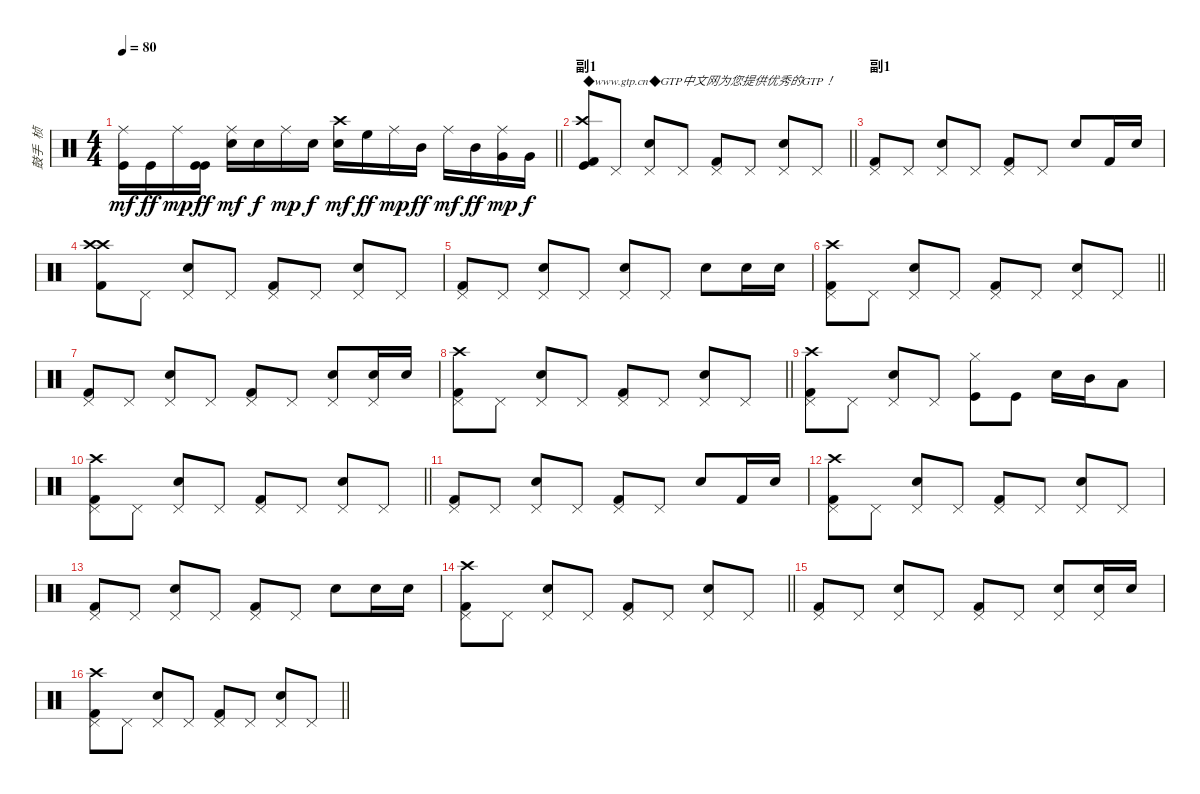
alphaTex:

\track ("鼓手  桢" "鼓手  桢") {instrument percussion}
\staff {score}
\articulation defaults
\ts (4 4)
\tempo 80
\clef neutral
\barLineRight lightlight
\ks c
("Kick (hit)" "Ride (middle)").16{dy mf} "Kick (hit)".16{dy ff} "Ride (middle)".16{dy mp} ("Kick (hit)" "Kick (hit)").16{dy ff} ("Snare (hit) 2" "Ride (middle)").16{dy mf} "Snare (hit) 2".16{dy f} "Ride (middle)".16{dy mp} "Snare (hit) 2".16{dy f} ("Snare (hit) 2" "Crash high (hit)").16{dy mf} "High Floor Tom (hit)".16{dy ff} "Ride (middle)".16{dy mp} "Mid Tom (hit)".16{dy ff} "Ride (middle)".16{dy mf} "Mid Tom (hit)".16{dy ff} ("Very Low Tom (hit)" "Ride (middle)").16{dy mp} "Very Low Tom (hit)".16{dy f} |
\section ("" "副1")
\barLineRight lightlight
("Kick (hit)" "Kick (hit) 2" "Crash high (hit)").8{txt "◆www.gtp.cn◆GTP中文网为您提供优秀的GTP！"} "Pedal Hi-Hat (hit)".8 ("Pedal Hi-Hat (hit)" "Snare (hit) 2").8 "Pedal Hi-Hat (hit)".8 ("Pedal Hi-Hat (hit)" "Kick (hit) 2").8 "Pedal Hi-Hat (hit)".8 ("Pedal Hi-Hat (hit)" "Snare (hit) 2").8 "Pedal Hi-Hat (hit)".8 |
\section ("" "副1")
("Pedal Hi-Hat (hit)" "Kick (hit) 2").8 "Pedal Hi-Hat (hit)".8 ("Pedal Hi-Hat (hit)" "Snare (hit) 2").8 "Pedal Hi-Hat (hit)".8 ("Pedal Hi-Hat (hit)" "Kick (hit) 2").8 "Pedal Hi-Hat (hit)".8 "Snare (hit) 2".8 "Kick (hit) 2".16 "Snare (hit) 2".16 |
("Crash high (hit)" "Kick (hit) 2" "Crash high (hit)").8 "Pedal Hi-Hat (hit)".8 ("Pedal Hi-Hat (hit)" "Snare (hit) 2").8 "Pedal Hi-Hat (hit)".8 ("Pedal Hi-Hat (hit)" "Kick (hit) 2").8 "Pedal Hi-Hat (hit)".8 ("Pedal Hi-Hat (hit)" "Snare (hit) 2").8 "Pedal Hi-Hat (hit)".8 |
("Pedal Hi-Hat (hit)" "Kick (hit) 2").8 "Pedal Hi-Hat (hit)".8 ("Pedal Hi-Hat (hit)" "Snare (hit) 2").8 "Pedal Hi-Hat (hit)".8 ("Pedal Hi-Hat (hit)" "Snare (hit) 2").8 "Pedal Hi-Hat (hit)".8 "Snare (hit) 2".8 "Snare (hit) 2".16 "Snare (hit) 2".16 |
\barLineRight lightlight
("Pedal Hi-Hat (hit)" "Kick (hit) 2" "Crash high (hit)").8 "Pedal Hi-Hat (hit)".8 ("Pedal Hi-Hat (hit)" "Snare (hit) 2").8 "Pedal Hi-Hat (hit)".8 ("Pedal Hi-Hat (hit)" "Kick (hit) 2").8 "Pedal Hi-Hat (hit)".8 ("Pedal Hi-Hat (hit)" "Snare (hit) 2").8 "Pedal Hi-Hat (hit)".8 |
("Pedal Hi-Hat (hit)" "Kick (hit) 2").8 "Pedal Hi-Hat (hit)".8 ("Pedal Hi-Hat (hit)" "Snare (hit) 2").8 "Pedal Hi-Hat (hit)".8 ("Pedal Hi-Hat (hit)" "Kick (hit) 2").8 "Pedal Hi-Hat (hit)".8 ("Pedal Hi-Hat (hit)" "Snare (hit) 2").8 ("Pedal Hi-Hat (hit)" "Snare (hit) 2").16 "Snare (hit) 2".16 |
\barLineRight lightlight
("Pedal Hi-Hat (hit)" "Kick (hit) 2" "Crash high (hit)").8 "Pedal Hi-Hat (hit)".8 ("Pedal Hi-Hat (hit)" "Snare (hit) 2").8 "Pedal Hi-Hat (hit)".8 ("Pedal Hi-Hat (hit)" "Kick (hit) 2").8 "Pedal Hi-Hat (hit)".8 ("Pedal Hi-Hat (hit)" "Snare (hit) 2").8 "Pedal Hi-Hat (hit)".8 |
("Pedal Hi-Hat (hit)" "Kick (hit) 2" "Crash high (hit)").8 "Pedal Hi-Hat (hit)".8 ("Pedal Hi-Hat (hit)" "Snare (hit) 2").8 "Pedal Hi-Hat (hit)".8 ("Hi-Hat (closed)" "Kick (hit)").8 "Kick (hit)".8 "Electric Snare (hit)".16 "Mid Tom (hit)".16 "Low Tom (hit)".8 |
\barLineRight lightlight
("Pedal Hi-Hat (hit)" "Kick (hit) 2" "Crash high (hit)").8 "Pedal Hi-Hat (hit)".8 ("Pedal Hi-Hat (hit)" "Snare (hit) 2").8 "Pedal Hi-Hat (hit)".8 ("Pedal Hi-Hat (hit)" "Kick (hit) 2").8 "Pedal Hi-Hat (hit)".8 ("Pedal Hi-Hat (hit)" "Snare (hit) 2").8 "Pedal Hi-Hat (hit)".8 |
("Pedal Hi-Hat (hit)" "Kick (hit) 2").8 "Pedal Hi-Hat (hit)".8 ("Pedal Hi-Hat (hit)" "Snare (hit) 2").8 "Pedal Hi-Hat (hit)".8 ("Pedal Hi-Hat (hit)" "Kick (hit) 2").8 "Pedal Hi-Hat (hit)".8 "Snare (hit) 2".8 "Kick (hit) 2".16 "Snare (hit) 2".16 |
("Pedal Hi-Hat (hit)" "Kick (hit) 2" "Crash high (hit)").8 "Pedal Hi-Hat (hit)".8 ("Pedal Hi-Hat (hit)" "Snare (hit) 2").8 "Pedal Hi-Hat (hit)".8 ("Pedal Hi-Hat (hit)" "Kick (hit) 2").8 "Pedal Hi-Hat (hit)".8 ("Pedal Hi-Hat (hit)" "Snare (hit) 2").8 "Pedal Hi-Hat (hit)".8 |
("Pedal Hi-Hat (hit)" "Kick (hit) 2").8 "Pedal Hi-Hat (hit)".8 ("Pedal Hi-Hat (hit)" "Snare (hit) 2").8 "Pedal Hi-Hat (hit)".8 ("Pedal Hi-Hat (hit)" "Kick (hit) 2").8 "Pedal Hi-Hat (hit)".8 "Snare (hit) 2".8 "Snare (hit) 2".16 "Snare (hit) 2".16 |
\barLineRight lightlight
("Pedal Hi-Hat (hit)" "Kick (hit) 2" "Crash high (hit)").8 "Pedal Hi-Hat (hit)".8 ("Pedal Hi-Hat (hit)" "Snare (hit) 2").8 "Pedal Hi-Hat (hit)".8 ("Pedal Hi-Hat (hit)" "Kick (hit) 2").8 "Pedal Hi-Hat (hit)".8 ("Pedal Hi-Hat (hit)" "Snare (hit) 2").8 "Pedal Hi-Hat (hit)".8 |
("Pedal Hi-Hat (hit)" "Kick (hit) 2").8 "Pedal Hi-Hat (hit)".8 ("Pedal Hi-Hat (hit)" "Snare (hit) 2").8 "Pedal Hi-Hat (hit)".8 ("Pedal Hi-Hat (hit)" "Kick (hit) 2").8 "Pedal Hi-Hat (hit)".8 ("Pedal Hi-Hat (hit)" "Snare (hit) 2").8 ("Pedal Hi-Hat (hit)" "Snare (hit) 2").16 "Snare (hit) 2".16 |
\barLineRight lightlight
("Pedal Hi-Hat (hit)" "Kick (hit) 2" "Crash high (hit)").8 "Pedal Hi-Hat (hit)".8 ("Pedal Hi-Hat (hit)" "Snare (hit) 2").8 "Pedal Hi-Hat (hit)".8 ("Pedal Hi-Hat (hit)" "Kick (hit) 2").8 "Pedal Hi-Hat (hit)".8 ("Pedal Hi-Hat (hit)" "Snare (hit) 2").8 "Pedal Hi-Hat (hit)".8
